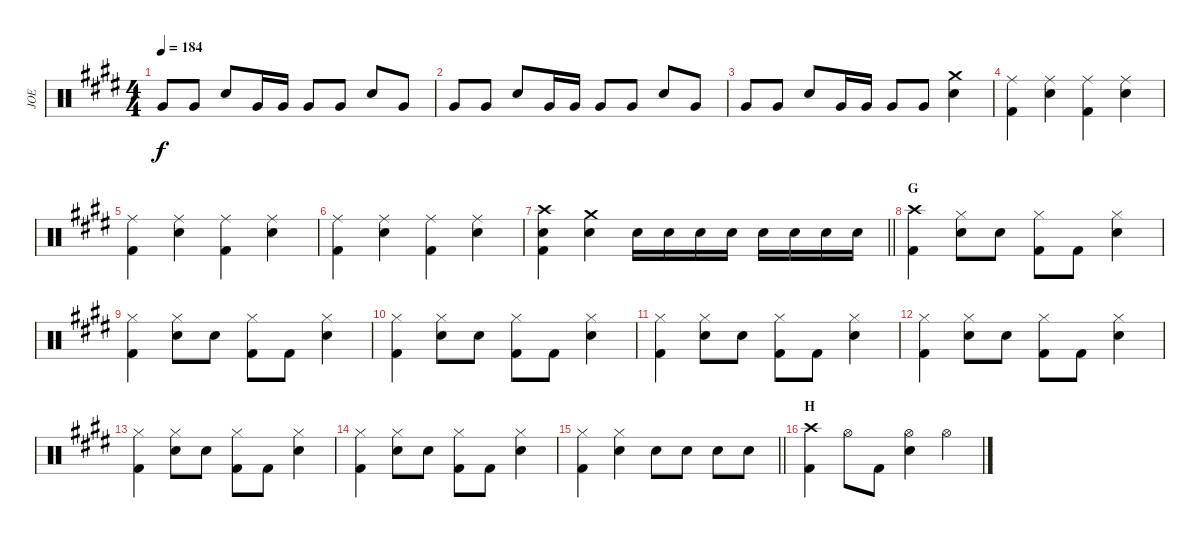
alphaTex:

\track ("JOE" "JOE") {instrument percussion}
\staff {score}
\articulation defaults
\ts (4 4)
\tempo 184
\clef neutral
\ks e "Very Low Tom (hit)".8{dy f} "Very Low Tom (hit)".8 "Snare (hit) 2".8 "Very Low Tom (hit)".16 "Very Low Tom (hit)".16 "Very Low Tom (hit)".8 "Very Low Tom (hit)".8 "Snare (hit) 2".8 "Very Low Tom (hit)".8
|
"Very Low Tom (hit)".8 "Very Low Tom (hit)".8 "Snare (hit) 2".8 "Very Low Tom (hit)".16 "Very Low Tom (hit)".16 "Very Low Tom (hit)".8 "Very Low Tom (hit)".8 "Snare (hit) 2".8 "Very Low Tom (hit)".8 |
"Very Low Tom (hit)".8 "Very Low Tom (hit)".8 "Snare (hit) 2".8 "Very Low Tom (hit)".16 "Very Low Tom (hit)".16 "Very Low Tom (hit)".8 "Very Low Tom (hit)".8 ("Crash medium (hit)" "Snare (hit) 2").4 |
("Ride (middle)" "Kick (hit) 2").4 ("Ride (middle)" "Snare (hit) 2").4 ("Ride (middle)" "Kick (hit) 2").4 ("Ride (middle)" "Snare (hit) 2").4 |
("Ride (middle)" "Kick (hit) 2").4 ("Ride (middle)" "Snare (hit) 2").4 ("Ride (middle)" "Kick (hit) 2").4 ("Ride (middle)" "Snare (hit) 2").4 |
("Ride (middle)" "Kick (hit) 2").4 ("Ride (middle)" "Snare (hit) 2").4 ("Ride (middle)" "Kick (hit) 2").4 ("Ride (middle)" "Snare (hit) 2").4 |
\barLineRight lightlight
("Crash high (hit)" "Snare (hit) 2" "Kick (hit) 2").4 ("Crash medium (hit)" "Snare (hit) 2").4 "Snare (hit) 2".16 "Snare (hit) 2".16 "Snare (hit) 2".16 "Snare (hit) 2".16 "Snare (hit) 2".16 "Snare (hit) 2".16 "Snare (hit) 2".16 "Snare (hit) 2".16 |
\section ("" "G")
("Crash high (hit)" "Kick (hit) 2").4 ("Hi-Hat (closed)" "Snare (hit) 2").8 "Snare (hit) 2".8 ("Hi-Hat (closed)" "Kick (hit) 2").8 "Kick (hit) 2".8 ("Hi-Hat (closed)" "Snare (hit) 2").4 |
("Hi-Hat (closed)" "Kick (hit) 2").4 ("Hi-Hat (closed)" "Snare (hit) 2").8 "Snare (hit) 2".8 ("Hi-Hat (closed)" "Kick (hit) 2").8 "Kick (hit) 2".8 ("Hi-Hat (closed)" "Snare (hit) 2").4 |
("Hi-Hat (closed)" "Kick (hit) 2").4 ("Hi-Hat (closed)" "Snare (hit) 2").8 "Snare (hit) 2".8 ("Hi-Hat (closed)" "Kick (hit) 2").8 "Kick (hit) 2".8 ("Hi-Hat (closed)" "Snare (hit) 2").4 |
("Hi-Hat (closed)" "Kick (hit) 2").4 ("Hi-Hat (closed)" "Snare (hit) 2").8 "Snare (hit) 2".8 ("Hi-Hat (closed)" "Kick (hit) 2").8 "Kick (hit) 2".8 ("Hi-Hat (closed)" "Snare (hit) 2").4 |
("Hi-Hat (closed)" "Kick (hit) 2").4 ("Hi-Hat (closed)" "Snare (hit) 2").8 "Snare (hit) 2".8 ("Hi-Hat (closed)" "Kick (hit) 2").8 "Kick (hit) 2".8 ("Hi-Hat (closed)" "Snare (hit) 2").4 |
("Hi-Hat (closed)" "Kick (hit) 2").4 ("Hi-Hat (closed)" "Snare (hit) 2").8 "Snare (hit) 2".8 ("Hi-Hat (closed)" "Kick (hit) 2").8 "Kick (hit) 2".8 ("Hi-Hat (closed)" "Snare (hit) 2").4 |
("Hi-Hat (closed)" "Kick (hit) 2").4 ("Hi-Hat (closed)" "Snare (hit) 2").8 "Snare (hit) 2".8 ("Hi-Hat (closed)" "Kick (hit) 2").8 "Kick (hit) 2".8 ("Hi-Hat (closed)" "Snare (hit) 2").4 |
\barLineRight lightlight
("Hi-Hat (closed)" "Kick (hit) 2").4 ("Hi-Hat (closed)" "Snare (hit) 2").4 "Snare (hit) 2".8 "Snare (hit) 2".8 "Snare (hit) 2".8 "Snare (hit) 2".8 |
\section ("" "H")
("Crash high (hit)" "Kick (hit) 2").4 "Hi-Hat (open)".8 "Kick (hit) 2".8 ("Hi-Hat (open)" "Snare (hit) 2").4 "Hi-Hat (open)".4
